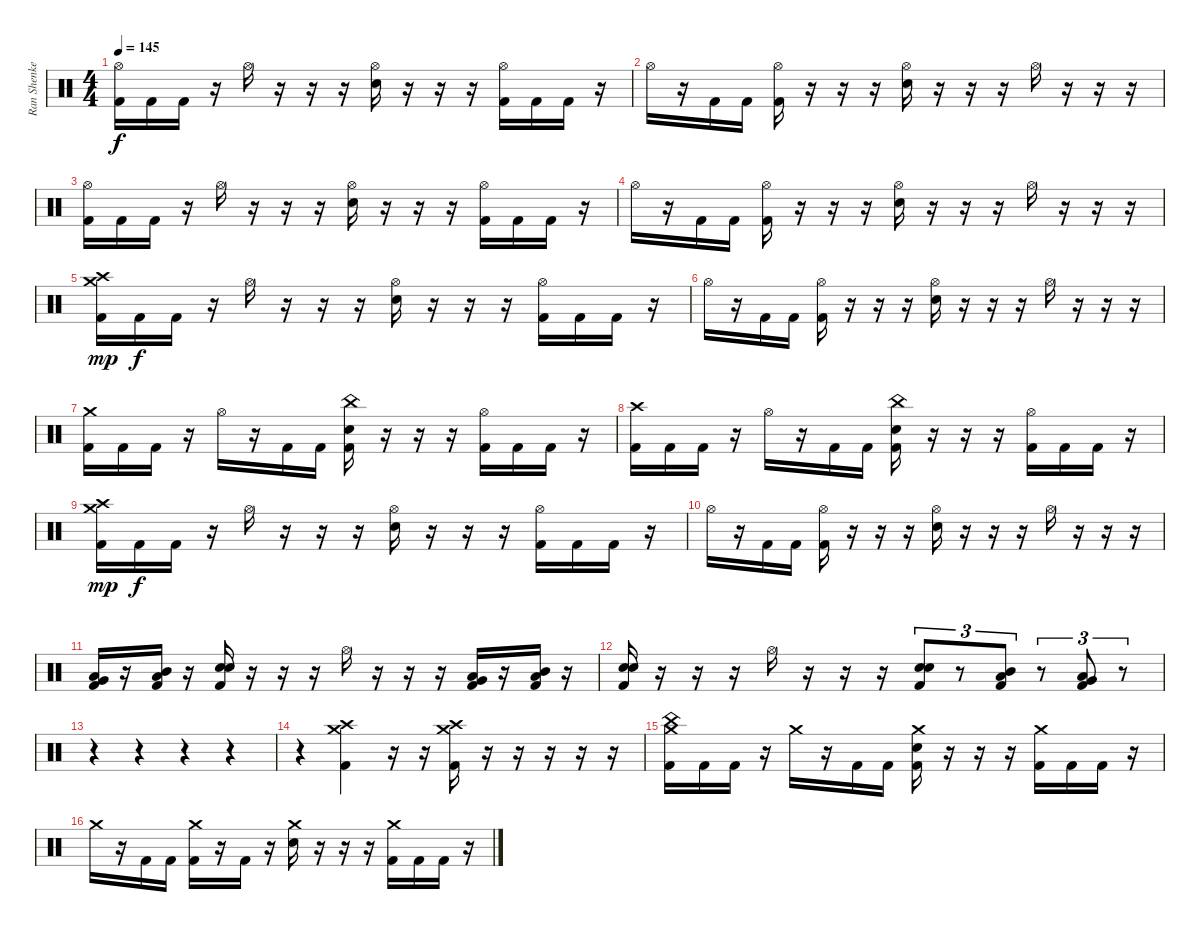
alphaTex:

\track ("Ran Shenkerman" "Ran Shenke") {instrument percussion}
\staff {score}
\articulation defaults
\ts (4 4)
\tempo 145
\clef neutral
\ks c
("Hi-Hat (open)" "Kick (hit) 2").16{dy f} "Kick (hit) 2".16 "Kick (hit) 2".16 r.16 "Hi-Hat (open)".16 r.16 r.16 r.16 ("Hi-Hat (open)" "Snare (hit) 2").16 r.16 r.16 r.16 ("Hi-Hat (open)" "Kick (hit) 2").16 "Kick (hit) 2".16 "Kick (hit) 2".16 r.16 |
"Hi-Hat (open)".16 r.16 "Kick (hit) 2".16 "Kick (hit) 2".16 ("Hi-Hat (open)" "Kick (hit) 2").16 r.16 r.16 r.16 ("Hi-Hat (open)" "Snare (hit) 2").16 r.16 r.16 r.16 "Hi-Hat (open)".16 r.16 r.16 r.16 |
("Hi-Hat (open)" "Kick (hit) 2").16 "Kick (hit) 2".16 "Kick (hit) 2".16 r.16 "Hi-Hat (open)".16 r.16 r.16 r.16 ("Hi-Hat (open)" "Snare (hit) 2").16 r.16 r.16 r.16 ("Hi-Hat (open)" "Kick (hit) 2").16 "Kick (hit) 2".16 "Kick (hit) 2".16 r.16 |
"Hi-Hat (open)".16 r.16 "Kick (hit) 2".16 "Kick (hit) 2".16 ("Hi-Hat (open)" "Kick (hit) 2").16 r.16 r.16 r.16 ("Hi-Hat (open)" "Snare (hit) 2").16 r.16 r.16 r.16 "Hi-Hat (open)".16 r.16 r.16 r.16 |
("Crash high (hit)" "Crash medium (hit)" "Kick (hit) 2").16{dy mp} "Kick (hit) 2".16{dy f} "Kick (hit) 2".16 r.16 "Hi-Hat (open)".16 r.16 r.16 r.16 ("Hi-Hat (open)" "Snare (hit) 2").16 r.16 r.16 r.16 ("Hi-Hat (open)" "Kick (hit) 2").16 "Kick (hit) 2".16 "Kick (hit) 2".16 r.16 |
"Hi-Hat (open)".16 r.16 "Kick (hit) 2".16 "Kick (hit) 2".16 ("Hi-Hat (open)" "Kick (hit) 2").16 r.16 r.16 r.16 ("Hi-Hat (open)" "Snare (hit) 2").16 r.16 r.16 r.16 "Hi-Hat (open)".16 r.16 r.16 r.16 |
("Crash medium (hit)" "Kick (hit) 2").16 "Kick (hit) 2".16 "Kick (hit) 2".16 r.16 "Hi-Hat (open)".16 r.16 "Kick (hit) 2".16 "Kick (hit) 2".16 ("China (hit)" "Snare (hit) 2" "Kick (hit) 2").16 r.16 r.16 r.16 ("Hi-Hat (open)" "Kick (hit) 2").16 "Kick (hit) 2".16 "Kick (hit) 2".16 r.16 |
("Crash high (hit)" "Kick (hit) 2").16 "Kick (hit) 2".16 "Kick (hit) 2".16 r.16 "Hi-Hat (open)".16 r.16 "Kick (hit) 2".16 "Kick (hit) 2".16 ("China (hit)" "Snare (hit) 2" "Kick (hit) 2").16 r.16 r.16 r.16 ("Hi-Hat (open)" "Kick (hit) 2").16 "Kick (hit) 2".16 "Kick (hit) 2".16 r.16 |
("Crash high (hit)" "Crash medium (hit)" "Kick (hit) 2").16{dy mp} "Kick (hit) 2".16{dy f} "Kick (hit) 2".16 r.16 "Hi-Hat (open)".16 r.16 r.16 r.16 ("Hi-Hat (open)" "Snare (hit) 2").16 r.16 r.16 r.16 ("Hi-Hat (open)" "Kick (hit) 2").16 "Kick (hit) 2".16 "Kick (hit) 2".16 r.16 |
"Hi-Hat (open)".16 r.16 "Kick (hit) 2".16 "Kick (hit) 2".16 ("Hi-Hat (open)" "Kick (hit) 2").16 r.16 r.16 r.16 ("Hi-Hat (open)" "Snare (hit) 2").16 r.16 r.16 r.16 "Hi-Hat (open)".16 r.16 r.16 r.16 |
("Very Low Tom (hit)" "Low Floor Tom (hit)" "Kick (hit) 2").16 r.16 ("Mid Tom (hit)" "Low Tom (hit)" "Kick (hit) 2").16 r.16 ("Snare (hit) 2" "Snare (hit) 2" "Kick (hit) 2").16 r.16 r.16 r.16 "Hi-Hat (open)".16 r.16 r.16 r.16 ("Very Low Tom (hit)" "Low Floor Tom (hit)" "Kick (hit) 2").16 r.16 ("Mid Tom (hit)" "Low Tom (hit)" "Kick (hit) 2").16 r.16 |
("Snare (hit) 2" "Snare (hit) 2" "Kick (hit) 2").16 r.16 r.16 r.16 "Hi-Hat (open)".16 r.16 r.16 r.16 ("Snare (hit) 2" "Snare (hit) 2" "Kick (hit) 2").8{tu (3 2)} r.8{tu (3 2)} ("Mid Tom (hit)" "Low Tom (hit)" "Kick (hit) 2").8{tu (3 2)} r.8{tu (3 2)} ("Very Low Tom (hit)" "Low Floor Tom (hit)" "Kick (hit) 2").8{tu (3 2)} r.8{tu (3 2)} |
r.4 r.4 r.4 r.4 |
r.4 ("Crash high (hit)" "Crash medium (hit)" "Kick (hit) 2").4 r.16 r.16 ("Crash medium (hit)" "Crash high (hit)" "Kick (hit) 2").16 r.16 r.16 r.16 r.16 r.16 |
("Crash medium (hit)" "China (hit)" "Kick (hit) 2").16 "Kick (hit) 2".16 "Kick (hit) 2".16 r.16 "Crash medium (hit)".16 r.16 "Kick (hit) 2".16 "Kick (hit) 2".16 ("Crash medium (hit)" "Snare (hit) 2" "Kick (hit) 2").16 r.16 r.16 r.16 ("Crash medium (hit)" "Kick (hit) 2").16 "Kick (hit) 2".16 "Kick (hit) 2".16 r.16 |
"Crash medium (hit)".16 r.16 "Kick (hit) 2".16 "Kick (hit) 2".16 ("Crash medium (hit)" "Kick (hit) 2").16 r.16 "Kick (hit) 2".16 r.16 ("Crash medium (hit)" "Snare (hit) 2").16 r.16 r.16 r.16 ("Crash medium (hit)" "Kick (hit) 2").16 "Kick (hit) 2".16 "Kick (hit) 2".16 r.16
